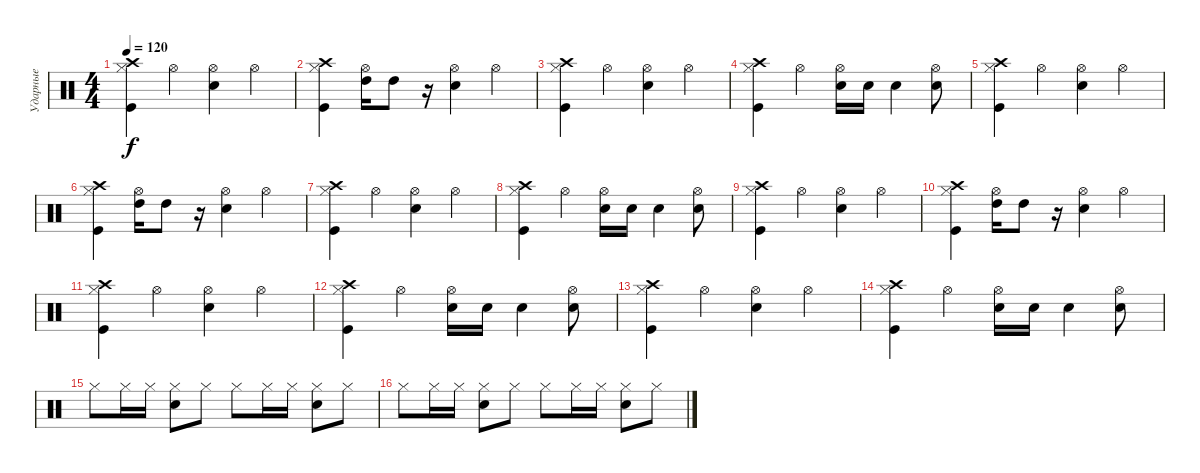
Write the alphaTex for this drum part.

\track ("Ударные" "Ударные") {instrument percussion}
\staff {score}
\articulation defaults
\ts (4 4)
\tempo 120
\clef neutral
\ks c
("Crash high (hit)" "Hi-Hat (closed)" "Kick (hit)").4{dy f} "Hi-Hat (open)".4 ("Hi-Hat (open)" "Electric Snare (hit)").4 "Hi-Hat (open)".4 |
("Hi-Hat (closed)" "Crash high (hit)" "Kick (hit)").4 ("Hi-Hat (open)" "High Tom (hit)").16 "High Tom (hit)".8 r.16 ("Hi-Hat (open)" "Electric Snare (hit)").4 "Hi-Hat (open)".4 |
("Crash high (hit)" "Hi-Hat (closed)" "Kick (hit)").4 "Hi-Hat (open)".4 ("Hi-Hat (open)" "Electric Snare (hit)").4 "Hi-Hat (open)".4 |
("Crash high (hit)" "Hi-Hat (closed)" "Kick (hit)").4 "Hi-Hat (open)".4 ("Hi-Hat (open)" "Electric Snare (hit)").16 "Electric Snare (hit)".16 "Electric Snare (hit)".4 ("Hi-Hat (open)" "Electric Snare (hit)").8 |
("Crash high (hit)" "Hi-Hat (closed)" "Kick (hit)").4 "Hi-Hat (open)".4 ("Hi-Hat (open)" "Electric Snare (hit)").4 "Hi-Hat (open)".4 |
("Hi-Hat (closed)" "Crash high (hit)" "Kick (hit)").4 ("Hi-Hat (open)" "High Tom (hit)").16 "High Tom (hit)".8 r.16 ("Hi-Hat (open)" "Electric Snare (hit)").4 "Hi-Hat (open)".4 |
("Crash high (hit)" "Hi-Hat (closed)" "Kick (hit)").4 "Hi-Hat (open)".4 ("Hi-Hat (open)" "Electric Snare (hit)").4 "Hi-Hat (open)".4 |
("Crash high (hit)" "Hi-Hat (closed)" "Kick (hit)").4 "Hi-Hat (open)".4 ("Hi-Hat (open)" "Electric Snare (hit)").16 "Electric Snare (hit)".16 "Electric Snare (hit)".4 ("Hi-Hat (open)" "Electric Snare (hit)").8 |
("Crash high (hit)" "Hi-Hat (closed)" "Kick (hit)").4 "Hi-Hat (open)".4 ("Hi-Hat (open)" "Electric Snare (hit)").4 "Hi-Hat (open)".4 |
("Hi-Hat (closed)" "Crash high (hit)" "Kick (hit)").4 ("Hi-Hat (open)" "High Tom (hit)").16 "High Tom (hit)".8 r.16 ("Hi-Hat (open)" "Electric Snare (hit)").4 "Hi-Hat (open)".4 |
("Crash high (hit)" "Hi-Hat (closed)" "Kick (hit)").4 "Hi-Hat (open)".4 ("Hi-Hat (open)" "Electric Snare (hit)").4 "Hi-Hat (open)".4 |
("Crash high (hit)" "Hi-Hat (closed)" "Kick (hit)").4 "Hi-Hat (open)".4 ("Hi-Hat (open)" "Electric Snare (hit)").16 "Electric Snare (hit)".16 "Electric Snare (hit)".4 ("Hi-Hat (open)" "Electric Snare (hit)").8 |
("Crash high (hit)" "Hi-Hat (closed)" "Kick (hit)").4 "Hi-Hat (open)".4 ("Hi-Hat (open)" "Electric Snare (hit)").4 "Hi-Hat (open)".4 |
("Crash high (hit)" "Hi-Hat (closed)" "Kick (hit)").4 "Hi-Hat (open)".4 ("Hi-Hat (open)" "Electric Snare (hit)").16 "Electric Snare (hit)".16 "Electric Snare (hit)".4 ("Hi-Hat (open)" "Electric Snare (hit)").8 |
"Hi-Hat (closed)".8 "Hi-Hat (closed)".16 "Hi-Hat (closed)".16 ("Hi-Hat (closed)" "Electric Snare (hit)").8 "Hi-Hat (closed)".8 "Hi-Hat (closed)".8 "Hi-Hat (closed)".16 "Hi-Hat (closed)".16 ("Hi-Hat (closed)" "Electric Snare (hit)").8 "Hi-Hat (closed)".8 |
"Hi-Hat (closed)".8 "Hi-Hat (closed)".16 "Hi-Hat (closed)".16 ("Hi-Hat (closed)" "Electric Snare (hit)").8 "Hi-Hat (closed)".8 "Hi-Hat (closed)".8 "Hi-Hat (closed)".16 "Hi-Hat (closed)".16 ("Hi-Hat (closed)" "Electric Snare (hit)").8 "Hi-Hat (closed)".8
